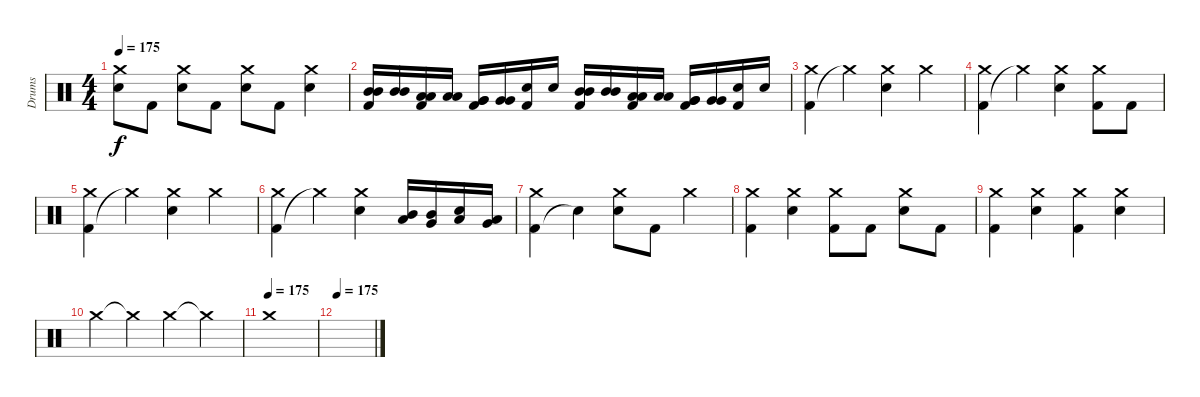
\track ("Drums" "Drums") {instrument percussion}
\staff {score}
\articulation defaults
\ts (4 4)
\tempo 175
\clef neutral
\ks c
("Electric Snare (hit)" "Crash medium (hit)").8{dy f} "Kick (hit) 2".8 ("Electric Snare (hit)" "Crash medium (hit)").8 "Kick (hit) 2".8 ("Electric Snare (hit)" "Crash medium (hit)").8 "Kick (hit) 2".8 ("Electric Snare (hit)" "Crash medium (hit)").4 |
("Kick (hit) 2" "Mid Tom (hit)" "Mid Tom (hit)").16 ("Mid Tom (hit)" "Mid Tom (hit)").16 ("Kick (hit) 2" "Low Tom (hit)" "Low Tom (hit)").16 ("Low Tom (hit)" "Low Tom (hit)").16 ("Kick (hit) 2" "Very Low Tom (hit)" "Very Low Tom (hit)").16 ("Very Low Tom (hit)" "Very Low Tom (hit)").16 ("Kick (hit) 2" "Electric Snare (hit)").16 "Electric Snare (hit)".16 ("Kick (hit) 2" "Mid Tom (hit)" "Mid Tom (hit)").16 ("Mid Tom (hit)" "Mid Tom (hit)").16 ("Kick (hit) 2" "Low Tom (hit)" "Low Tom (hit)").16 ("Low Tom (hit)" "Low Tom (hit)").16 ("Kick (hit) 2" "Very Low Tom (hit)" "Very Low Tom (hit)").16 ("Very Low Tom (hit)" "Very Low Tom (hit)").16 ("Kick (hit) 2" "Electric Snare (hit)").16 "Electric Snare (hit)".16 |
("Kick (hit) 2" "Crash medium (hit)").4 "Crash medium (hit)"{t}.4 ("Electric Snare (hit)" "Crash medium (hit)").4 "Crash medium (hit)".4 |
("Kick (hit) 2" "Crash medium (hit)").4 "Crash medium (hit)"{t}.4 ("Electric Snare (hit)" "Crash medium (hit)").4 ("Kick (hit) 2" "Crash medium (hit)").8 "Kick (hit) 2".8 |
("Kick (hit) 2" "Crash medium (hit)").4 "Crash medium (hit)"{t}.4 ("Electric Snare (hit)" "Crash medium (hit)").4 "Crash medium (hit)".4 |
("Kick (hit) 2" "Crash medium (hit)").4 "Crash medium (hit)"{t}.4 ("Electric Snare (hit)" "Crash medium (hit)").4 ("Mid Tom (hit)" "Low Tom (hit)").16 ("Mid Tom (hit)" "Very Low Tom (hit)").16 ("Low Tom (hit)" "Electric Snare (hit)").16 ("Very Low Tom (hit)" "Low Floor Tom (hit)").16 |
("Kick (hit) 2" "Crash medium (hit)").4 "Snare (hit)"{t}.4 ("Electric Snare (hit)" "Crash medium (hit)").8 "Kick (hit) 2".8 "Crash medium (hit)".4 |
("Kick (hit) 2" "Crash medium (hit)").4 ("Electric Snare (hit)" "Crash medium (hit)").4 ("Kick (hit) 2" "Crash medium (hit)").8 "Kick (hit) 2".8 ("Electric Snare (hit)" "Crash medium (hit)").8 "Kick (hit) 2".8 |
("Kick (hit) 2" "Crash medium (hit)").4 ("Electric Snare (hit)" "Crash medium (hit)").4 ("Kick (hit) 2" "Crash medium (hit)").4 ("Electric Snare (hit)" "Crash medium (hit)").4 |
"Crash medium (hit)".4 "Crash medium (hit)"{t}.4 "Crash medium (hit)".4 "Crash medium (hit)"{t}.4 |
\tempo (175)
"Crash medium (hit)".1 |
\tempo 175
